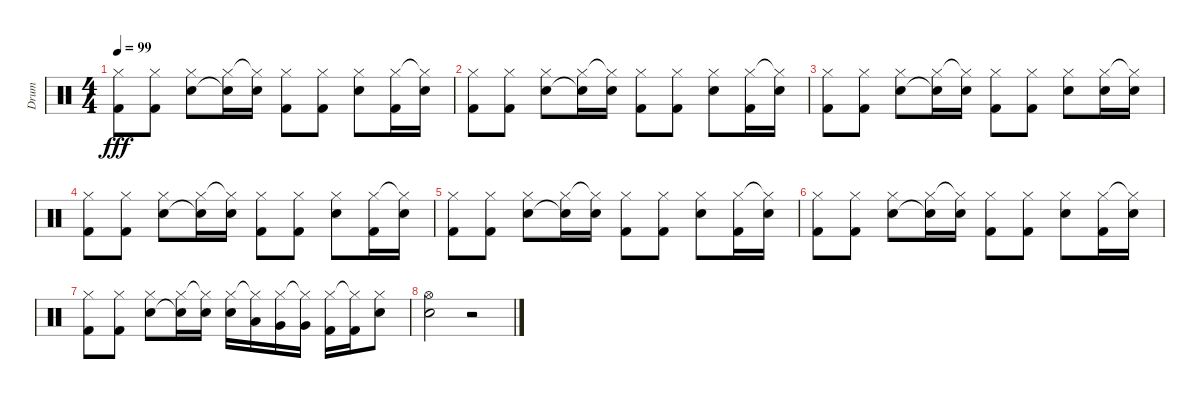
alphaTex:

\track ("Drum" "Drum") {instrument percussion}
\staff {score}
\articulation defaults
\ts (4 4)
\tempo 99
\clef neutral
\ks c
("Hi-Hat (closed)" "Kick (hit) 2").8{dy fff} ("Hi-Hat (closed)" "Kick (hit) 2").8 ("Hi-Hat (closed)" "Electric Snare (hit)").8 ("Hi-Hat (closed)" "Electric Snare (hit)"{t}).16 ("Hi-Hat (closed)"{t} "Electric Snare (hit)").16 ("Hi-Hat (closed)" "Kick (hit) 2").8 ("Hi-Hat (closed)" "Kick (hit) 2").8 ("Hi-Hat (closed)" "Electric Snare (hit)").8 ("Hi-Hat (closed)" "Kick (hit) 2").16 ("Hi-Hat (closed)"{t} "Electric Snare (hit)").16 |
("Hi-Hat (closed)" "Kick (hit) 2").8 ("Hi-Hat (closed)" "Kick (hit) 2").8 ("Hi-Hat (closed)" "Electric Snare (hit)").8 ("Hi-Hat (closed)" "Electric Snare (hit)"{t}).16 ("Hi-Hat (closed)"{t} "Electric Snare (hit)").16 ("Hi-Hat (closed)" "Kick (hit) 2").8 ("Hi-Hat (closed)" "Kick (hit) 2").8 ("Hi-Hat (closed)" "Electric Snare (hit)").8 ("Hi-Hat (closed)" "Kick (hit) 2").16 ("Hi-Hat (closed)"{t} "Electric Snare (hit)").16 |
("Hi-Hat (closed)" "Kick (hit) 2").8 ("Hi-Hat (closed)" "Kick (hit) 2").8 ("Hi-Hat (closed)" "Electric Snare (hit)").8 ("Hi-Hat (closed)" "Electric Snare (hit)"{t}).16 ("Hi-Hat (closed)"{t} "Electric Snare (hit)").16 ("Hi-Hat (closed)" "Kick (hit) 2").8 ("Hi-Hat (closed)" "Kick (hit) 2").8 ("Hi-Hat (closed)" "Electric Snare (hit)").8 ("Hi-Hat (closed)" "Electric Snare (hit)").16 ("Hi-Hat (closed)"{t} "Electric Snare (hit)").16 |
("Hi-Hat (closed)" "Kick (hit) 2").8 ("Hi-Hat (closed)" "Kick (hit) 2").8 ("Hi-Hat (closed)" "Electric Snare (hit)").8 ("Hi-Hat (closed)" "Electric Snare (hit)"{t}).16 ("Hi-Hat (closed)"{t} "Electric Snare (hit)").16 ("Hi-Hat (closed)" "Kick (hit) 2").8 ("Hi-Hat (closed)" "Kick (hit) 2").8 ("Hi-Hat (closed)" "Electric Snare (hit)").8 ("Hi-Hat (closed)" "Kick (hit) 2").16 ("Hi-Hat (closed)"{t} "Electric Snare (hit)").16 |
("Hi-Hat (closed)" "Kick (hit) 2").8 ("Hi-Hat (closed)" "Kick (hit) 2").8 ("Hi-Hat (closed)" "Electric Snare (hit)").8 ("Hi-Hat (closed)" "Electric Snare (hit)"{t}).16 ("Hi-Hat (closed)"{t} "Electric Snare (hit)").16 ("Hi-Hat (closed)" "Kick (hit) 2").8 ("Hi-Hat (closed)" "Kick (hit) 2").8 ("Hi-Hat (closed)" "Electric Snare (hit)").8 ("Hi-Hat (closed)" "Kick (hit) 2").16 ("Hi-Hat (closed)"{t} "Electric Snare (hit)").16 |
("Hi-Hat (closed)" "Kick (hit) 2").8 ("Hi-Hat (closed)" "Kick (hit) 2").8 ("Hi-Hat (closed)" "Electric Snare (hit)").8 ("Hi-Hat (closed)" "Electric Snare (hit)"{t}).16 ("Hi-Hat (closed)"{t} "Electric Snare (hit)").16 ("Hi-Hat (closed)" "Kick (hit) 2").8 ("Hi-Hat (closed)" "Kick (hit) 2").8 ("Hi-Hat (closed)" "Electric Snare (hit)").8 ("Hi-Hat (closed)" "Kick (hit) 2").16 ("Hi-Hat (closed)"{t} "Electric Snare (hit)").16 |
("Hi-Hat (closed)" "Kick (hit) 2").8 ("Hi-Hat (closed)" "Kick (hit) 2").8 ("Hi-Hat (closed)" "Electric Snare (hit)").8 ("Hi-Hat (closed)" "Electric Snare (hit)"{t}).16 ("Hi-Hat (closed)"{t} "Electric Snare (hit)").16 ("Hi-Hat (closed)" "Electric Snare (hit)").16 ("Hi-Hat (closed)"{t} "Low Tom (hit)").16 ("Hi-Hat (closed)" "Very Low Tom (hit)").16 ("Hi-Hat (closed)"{t} "Very Low Tom (hit)").16 ("Hi-Hat (closed)" "Kick (hit) 2").16 ("Hi-Hat (closed)"{t} "Kick (hit) 2").16 ("Hi-Hat (closed)" "Electric Snare (hit)").8 |
("Hi-Hat (open)" "Electric Snare (hit)").2 r.2
